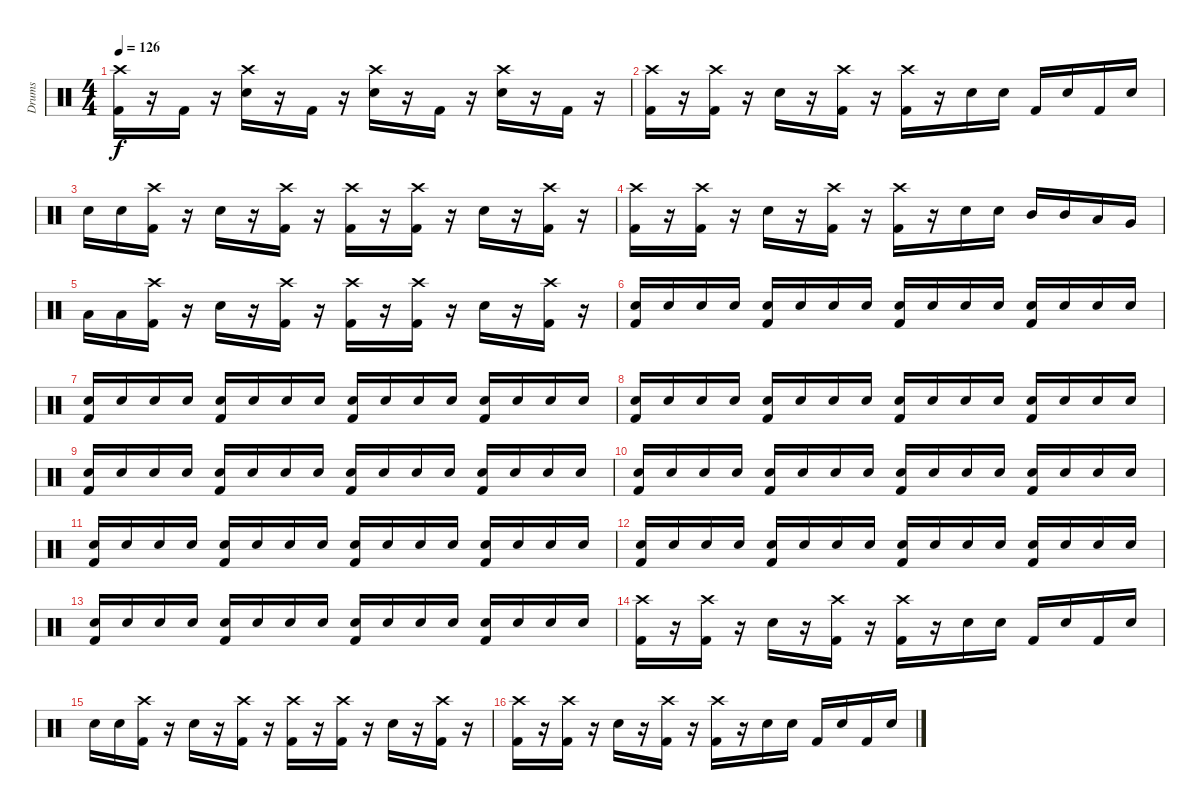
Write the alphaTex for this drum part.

\track ("Drums" "Drums") {instrument percussion}
\staff {score}
\articulation defaults
\ts (4 4)
\tempo 126
\clef neutral
\ks c
("Crash high (hit)" "Kick (hit) 2").16{dy f} r.16 "Kick (hit) 2".16 r.16 ("Crash high (hit)" "Electric Snare (hit)").16 r.16 "Kick (hit) 2".16 r.16 ("Crash high (hit)" "Electric Snare (hit)").16 r.16 "Kick (hit) 2".16 r.16 ("Crash high (hit)" "Electric Snare (hit)").16 r.16 "Kick (hit) 2".16 r.16 |
("Crash high (hit)" "Kick (hit) 2").16 r.16 ("Crash high (hit)" "Kick (hit) 2").16 r.16 "Electric Snare (hit)".16 r.16 ("Crash high (hit)" "Kick (hit) 2").16 r.16 ("Crash high (hit)" "Kick (hit) 2").16 r.16 "Electric Snare (hit)".16 "Electric Snare (hit)".16 "Kick (hit) 2".16 "Electric Snare (hit)".16 "Kick (hit) 2".16 "Electric Snare (hit)".16 |
"Electric Snare (hit)".16 "Electric Snare (hit)".16 ("Crash high (hit)" "Kick (hit) 2").16 r.16 "Electric Snare (hit)".16 r.16 ("Crash high (hit)" "Kick (hit) 2").16 r.16 ("Crash high (hit)" "Kick (hit) 2").16 r.16 ("Crash high (hit)" "Kick (hit) 2").16 r.16 "Electric Snare (hit)".16 r.16 ("Crash high (hit)" "Kick (hit) 2").16 r.16 |
("Crash high (hit)" "Kick (hit) 2").16 r.16 ("Crash high (hit)" "Kick (hit) 2").16 r.16 "Electric Snare (hit)".16 r.16 ("Crash high (hit)" "Kick (hit) 2").16 r.16 ("Crash high (hit)" "Kick (hit) 2").16 r.16 "Electric Snare (hit)".16 "Electric Snare (hit)".16 "Mid Tom (hit)".16 "Mid Tom (hit)".16 "Low Tom (hit)".16 "Very Low Tom (hit)".16 |
"Low Floor Tom (hit)".16 "Low Floor Tom (hit)".16 ("Crash high (hit)" "Kick (hit) 2").16 r.16 "Electric Snare (hit)".16 r.16 ("Crash high (hit)" "Kick (hit) 2").16 r.16 ("Crash high (hit)" "Kick (hit) 2").16 r.16 ("Crash high (hit)" "Kick (hit) 2").16 r.16 "Electric Snare (hit)".16 r.16 ("Crash high (hit)" "Kick (hit) 2").16 r.16 |
("Electric Snare (hit)" "Kick (hit) 2").16{volume 6} "Electric Snare (hit)".16 "Electric Snare (hit)".16 "Electric Snare (hit)".16 ("Electric Snare (hit)" "Kick (hit) 2").16 "Electric Snare (hit)".16 "Electric Snare (hit)".16 "Electric Snare (hit)".16 ("Electric Snare (hit)" "Kick (hit) 2").16 "Electric Snare (hit)".16 "Electric Snare (hit)".16 "Electric Snare (hit)".16 ("Electric Snare (hit)" "Kick (hit) 2").16 "Electric Snare (hit)".16 "Electric Snare (hit)".16 "Electric Snare (hit)".16 |
("Electric Snare (hit)" "Kick (hit) 2").16{volume 7} "Electric Snare (hit)".16 "Electric Snare (hit)".16 "Electric Snare (hit)".16 ("Electric Snare (hit)" "Kick (hit) 2").16 "Electric Snare (hit)".16 "Electric Snare (hit)".16 "Electric Snare (hit)".16 ("Electric Snare (hit)" "Kick (hit) 2").16 "Electric Snare (hit)".16 "Electric Snare (hit)".16 "Electric Snare (hit)".16 ("Electric Snare (hit)" "Kick (hit) 2").16 "Electric Snare (hit)".16 "Electric Snare (hit)".16 "Electric Snare (hit)".16 |
("Electric Snare (hit)" "Kick (hit) 2").16{volume 8} "Electric Snare (hit)".16 "Electric Snare (hit)".16 "Electric Snare (hit)".16 ("Electric Snare (hit)" "Kick (hit) 2").16 "Electric Snare (hit)".16 "Electric Snare (hit)".16 "Electric Snare (hit)".16 ("Electric Snare (hit)" "Kick (hit) 2").16 "Electric Snare (hit)".16 "Electric Snare (hit)".16 "Electric Snare (hit)".16 ("Electric Snare (hit)" "Kick (hit) 2").16 "Electric Snare (hit)".16 "Electric Snare (hit)".16 "Electric Snare (hit)".16 |
("Electric Snare (hit)" "Kick (hit) 2").16{volume 9} "Electric Snare (hit)".16 "Electric Snare (hit)".16 "Electric Snare (hit)".16 ("Electric Snare (hit)" "Kick (hit) 2").16 "Electric Snare (hit)".16 "Electric Snare (hit)".16 "Electric Snare (hit)".16 ("Electric Snare (hit)" "Kick (hit) 2").16 "Electric Snare (hit)".16 "Electric Snare (hit)".16 "Electric Snare (hit)".16 ("Electric Snare (hit)" "Kick (hit) 2").16 "Electric Snare (hit)".16 "Electric Snare (hit)".16 "Electric Snare (hit)".16 |
("Electric Snare (hit)" "Kick (hit) 2").16{volume 10} "Electric Snare (hit)".16 "Electric Snare (hit)".16 "Electric Snare (hit)".16 ("Electric Snare (hit)" "Kick (hit) 2").16 "Electric Snare (hit)".16 "Electric Snare (hit)".16 "Electric Snare (hit)".16 ("Electric Snare (hit)" "Kick (hit) 2").16 "Electric Snare (hit)".16 "Electric Snare (hit)".16 "Electric Snare (hit)".16 ("Electric Snare (hit)" "Kick (hit) 2").16 "Electric Snare (hit)".16 "Electric Snare (hit)".16 "Electric Snare (hit)".16 |
("Electric Snare (hit)" "Kick (hit) 2").16{volume 11} "Electric Snare (hit)".16 "Electric Snare (hit)".16 "Electric Snare (hit)".16 ("Electric Snare (hit)" "Kick (hit) 2").16 "Electric Snare (hit)".16 "Electric Snare (hit)".16 "Electric Snare (hit)".16 ("Electric Snare (hit)" "Kick (hit) 2").16 "Electric Snare (hit)".16 "Electric Snare (hit)".16 "Electric Snare (hit)".16 ("Electric Snare (hit)" "Kick (hit) 2").16 "Electric Snare (hit)".16 "Electric Snare (hit)".16 "Electric Snare (hit)".16 |
("Electric Snare (hit)" "Kick (hit) 2").16{volume 12} "Electric Snare (hit)".16 "Electric Snare (hit)".16 "Electric Snare (hit)".16 ("Electric Snare (hit)" "Kick (hit) 2").16 "Electric Snare (hit)".16 "Electric Snare (hit)".16 "Electric Snare (hit)".16 ("Electric Snare (hit)" "Kick (hit) 2").16 "Electric Snare (hit)".16 "Electric Snare (hit)".16 "Electric Snare (hit)".16 ("Electric Snare (hit)" "Kick (hit) 2").16 "Electric Snare (hit)".16 "Electric Snare (hit)".16 "Electric Snare (hit)".16 |
("Electric Snare (hit)" "Kick (hit) 2").16{volume 13} "Electric Snare (hit)".16 "Electric Snare (hit)".16 "Electric Snare (hit)".16 ("Electric Snare (hit)" "Kick (hit) 2").16 "Electric Snare (hit)".16 "Electric Snare (hit)".16 "Electric Snare (hit)".16 ("Electric Snare (hit)" "Kick (hit) 2").16 "Electric Snare (hit)".16 "Electric Snare (hit)".16 "Electric Snare (hit)".16 ("Electric Snare (hit)" "Kick (hit) 2").16 "Electric Snare (hit)".16 "Electric Snare (hit)".16 "Electric Snare (hit)".16 |
("Crash high (hit)" "Kick (hit) 2").16 r.16 ("Crash high (hit)" "Kick (hit) 2").16 r.16 "Electric Snare (hit)".16 r.16 ("Crash high (hit)" "Kick (hit) 2").16 r.16 ("Crash high (hit)" "Kick (hit) 2").16 r.16 "Electric Snare (hit)".16 "Electric Snare (hit)".16 "Kick (hit) 2".16 "Electric Snare (hit)".16 "Kick (hit) 2".16 "Electric Snare (hit)".16 |
"Electric Snare (hit)".16 "Electric Snare (hit)".16 ("Crash high (hit)" "Kick (hit) 2").16 r.16 "Electric Snare (hit)".16 r.16 ("Crash high (hit)" "Kick (hit) 2").16 r.16 ("Crash high (hit)" "Kick (hit) 2").16 r.16 ("Crash high (hit)" "Kick (hit) 2").16 r.16 "Electric Snare (hit)".16 r.16 ("Crash high (hit)" "Kick (hit) 2").16 r.16 |
("Crash high (hit)" "Kick (hit) 2").16 r.16 ("Crash high (hit)" "Kick (hit) 2").16 r.16 "Electric Snare (hit)".16 r.16 ("Crash high (hit)" "Kick (hit) 2").16 r.16 ("Crash high (hit)" "Kick (hit) 2").16 r.16 "Electric Snare (hit)".16 "Electric Snare (hit)".16 "Kick (hit) 2".16 "Electric Snare (hit)".16 "Kick (hit) 2".16 "Electric Snare (hit)".16
